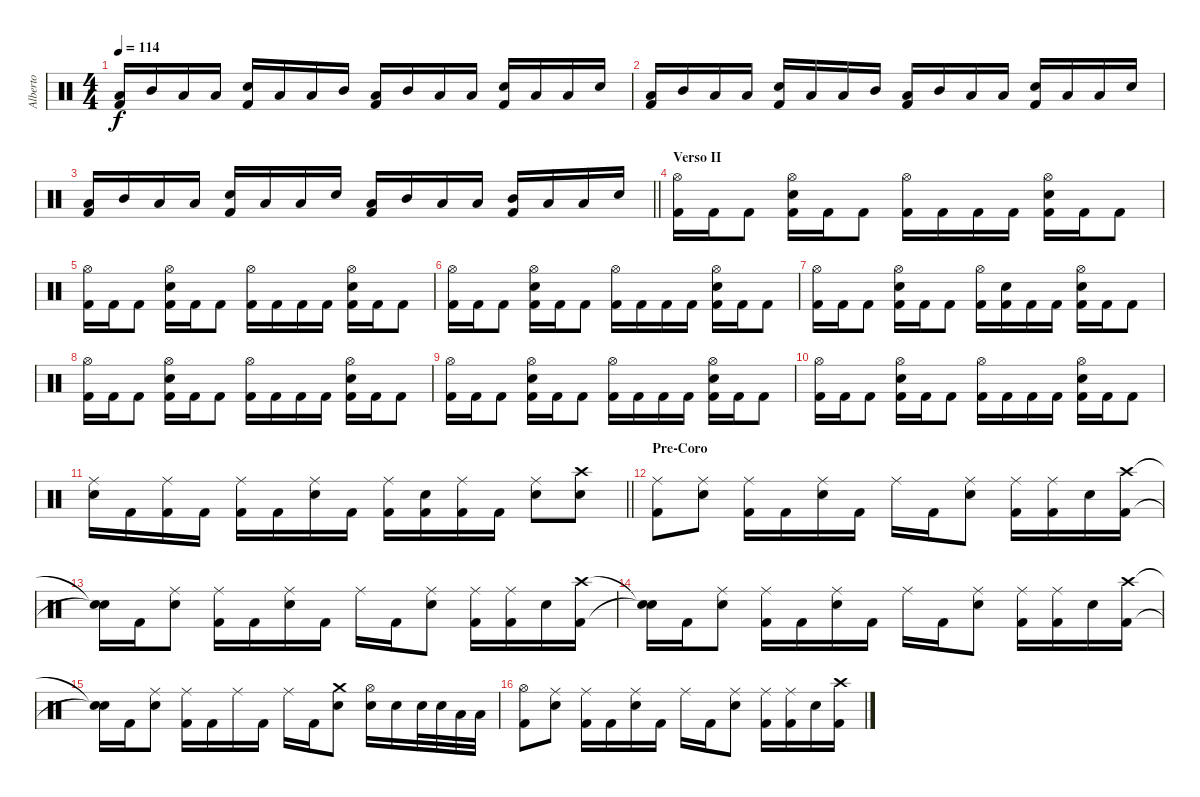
\track ("Alberto" "Alberto") {instrument percussion}
\staff
\articulation defaults
\ts (4 4)
\tempo 114
\clef neutral
\ks c
("Low Floor Tom (hit)" "Kick (hit) 2").16{dy f} "Mid Tom (hit)".16 "Low Floor Tom (hit)".16 "Low Floor Tom (hit)".16 ("Electric Snare (hit)" "Kick (hit) 2").16 "Low Floor Tom (hit)".16 "Low Floor Tom (hit)".16 "Mid Tom (hit)".16 ("Low Floor Tom (hit)" "Kick (hit) 2").16 "Mid Tom (hit)".16 "Low Floor Tom (hit)".16 "Low Floor Tom (hit)".16 ("Electric Snare (hit)" "Kick (hit) 2").16 "Low Floor Tom (hit)".16 "Low Floor Tom (hit)".16 "Electric Snare (hit)".16 |
("Low Floor Tom (hit)" "Kick (hit) 2").16 "Mid Tom (hit)".16 "Low Floor Tom (hit)".16 "Low Floor Tom (hit)".16 ("Electric Snare (hit)" "Kick (hit) 2").16 "Low Floor Tom (hit)".16 "Low Floor Tom (hit)".16 "Mid Tom (hit)".16 ("Low Floor Tom (hit)" "Kick (hit) 2").16 "Mid Tom (hit)".16 "Low Floor Tom (hit)".16 "Low Floor Tom (hit)".16 ("Electric Snare (hit)" "Kick (hit) 2").16 "Low Floor Tom (hit)".16 "Low Floor Tom (hit)".16 "Electric Snare (hit)".16 |
\barLineRight lightlight
("Low Floor Tom (hit)" "Kick (hit) 2").16 "Mid Tom (hit)".16 "Low Floor Tom (hit)".16 "Low Floor Tom (hit)".16 ("Electric Snare (hit)" "Kick (hit) 2").16 "Low Floor Tom (hit)".16 "Low Floor Tom (hit)".16 "Electric Snare (hit)".16 ("Low Floor Tom (hit)" "Kick (hit) 2").16 "Mid Tom (hit)".16 "Low Floor Tom (hit)".16 "Low Floor Tom (hit)".16 ("Mid Tom (hit)" "Kick (hit) 2").16 "Low Floor Tom (hit)".16 "Low Floor Tom (hit)".16 "Electric Snare (hit)".16 |
\section ("" "Verso II")
("Hi-Hat (open)" "Kick (hit) 2").16 "Kick (hit) 2".16 "Kick (hit) 2".8 ("Hi-Hat (open)" "Electric Snare (hit)" "Kick (hit) 2").16 "Kick (hit) 2".16 "Kick (hit) 2".8 ("Hi-Hat (open)" "Kick (hit) 2").16 "Kick (hit) 2".16 "Kick (hit) 2".16 "Kick (hit) 2".16 ("Hi-Hat (open)" "Electric Snare (hit)" "Kick (hit) 2").16 "Kick (hit) 2".16 "Kick (hit) 2".8 |
("Hi-Hat (open)" "Kick (hit) 2").16 "Kick (hit) 2".16 "Kick (hit) 2".8 ("Hi-Hat (open)" "Electric Snare (hit)" "Kick (hit) 2").16 "Kick (hit) 2".16 "Kick (hit) 2".8 ("Hi-Hat (open)" "Kick (hit) 2").16 "Kick (hit) 2".16 "Kick (hit) 2".16 "Kick (hit) 2".16 ("Hi-Hat (open)" "Electric Snare (hit)" "Kick (hit) 2").16 "Kick (hit) 2".16 "Kick (hit) 2".8 |
("Hi-Hat (open)" "Kick (hit) 2").16 "Kick (hit) 2".16 "Kick (hit) 2".8 ("Hi-Hat (open)" "Electric Snare (hit)" "Kick (hit) 2").16 "Kick (hit) 2".16 "Kick (hit) 2".8 ("Hi-Hat (open)" "Kick (hit) 2").16 "Kick (hit) 2".16 "Kick (hit) 2".16 "Kick (hit) 2".16 ("Hi-Hat (open)" "Electric Snare (hit)" "Kick (hit) 2").16 "Kick (hit) 2".16 "Kick (hit) 2".8 |
("Hi-Hat (open)" "Kick (hit) 2").16 "Kick (hit) 2".16 "Kick (hit) 2".8 ("Hi-Hat (open)" "Electric Snare (hit)" "Kick (hit) 2").16 "Kick (hit) 2".16 "Kick (hit) 2".8 ("Hi-Hat (open)" "Kick (hit) 2").16 ("Electric Snare (hit)" "Kick (hit) 2").16 "Kick (hit) 2".16 "Kick (hit) 2".16 ("Hi-Hat (open)" "Electric Snare (hit)" "Kick (hit) 2").16 "Kick (hit) 2".16 "Kick (hit) 2".8 |
("Hi-Hat (open)" "Kick (hit) 2").16 "Kick (hit) 2".16 "Kick (hit) 2".8 ("Hi-Hat (open)" "Electric Snare (hit)" "Kick (hit) 2").16 "Kick (hit) 2".16 "Kick (hit) 2".8 ("Hi-Hat (open)" "Kick (hit) 2").16 "Kick (hit) 2".16 "Kick (hit) 2".16 "Kick (hit) 2".16 ("Hi-Hat (open)" "Electric Snare (hit)" "Kick (hit) 2").16 "Kick (hit) 2".16 "Kick (hit) 2".8 |
("Hi-Hat (open)" "Kick (hit) 2").16 "Kick (hit) 2".16 "Kick (hit) 2".8 ("Hi-Hat (open)" "Electric Snare (hit)" "Kick (hit) 2").16 "Kick (hit) 2".16 "Kick (hit) 2".8 ("Hi-Hat (open)" "Kick (hit) 2").16 "Kick (hit) 2".16 "Kick (hit) 2".16 "Kick (hit) 2".16 ("Hi-Hat (open)" "Electric Snare (hit)" "Kick (hit) 2").16 "Kick (hit) 2".16 "Kick (hit) 2".8 |
("Hi-Hat (open)" "Kick (hit) 2").16 "Kick (hit) 2".16 "Kick (hit) 2".8 ("Hi-Hat (open)" "Electric Snare (hit)" "Kick (hit) 2").16 "Kick (hit) 2".16 "Kick (hit) 2".8 ("Hi-Hat (open)" "Kick (hit) 2").16 "Kick (hit) 2".16 "Kick (hit) 2".16 "Kick (hit) 2".16 ("Hi-Hat (open)" "Electric Snare (hit)" "Kick (hit) 2").16 "Kick (hit) 2".16 "Kick (hit) 2".8 |
\barLineRight lightlight
("Ride (middle)" "Electric Snare (hit)").16 "Kick (hit) 2".16 ("Ride (middle)" "Kick (hit) 2").16 "Kick (hit) 2".16 ("Ride (middle)" "Kick (hit) 2").16 "Kick (hit) 2".16 ("Ride (middle)" "Electric Snare (hit)").16 "Kick (hit) 2".16 ("Ride (middle)" "Kick (hit) 2").16 ("Electric Snare (hit)" "Kick (hit) 2").16 ("Ride (middle)" "Kick (hit) 2").16 "Kick (hit) 2".16 ("Ride (middle)" "Electric Snare (hit)").8 ("Crash high (hit)" "Electric Snare (hit)").8 |
\section ("" "Pre-Coro")
("Ride (middle)" "Kick (hit) 2").8 ("Ride (middle)" "Electric Snare (hit)").8 ("Ride (middle)" "Kick (hit) 2").16 "Kick (hit) 2".16 ("Ride (middle)" "Electric Snare (hit)").16 "Kick (hit) 2".16 "Ride (middle)".16 "Kick (hit) 2".16 ("Ride (middle)" "Electric Snare (hit)").8 ("Ride (middle)" "Kick (hit) 2").16 ("Ride (middle)" "Kick (hit) 2").16 "Electric Snare (hit)".16 ("Crash high (hit)" "Kick (hit) 2").16 |
("Snare (hit)"{t} "Snare (hit)"{t}).16 "Kick (hit) 2".16 ("Ride (middle)" "Electric Snare (hit)").8 ("Ride (middle)" "Kick (hit) 2").16 "Kick (hit) 2".16 ("Ride (middle)" "Electric Snare (hit)").16 "Kick (hit) 2".16 "Ride (middle)".16 "Kick (hit) 2".16 ("Ride (middle)" "Electric Snare (hit)").8 ("Ride (middle)" "Kick (hit) 2").16 ("Ride (middle)" "Kick (hit) 2").16 "Electric Snare (hit)".16 ("Crash high (hit)" "Kick (hit) 2").16 |
("Snare (hit)"{t} "Snare (hit)"{t}).16 "Kick (hit) 2".16 ("Ride (middle)" "Electric Snare (hit)").8 ("Ride (middle)" "Kick (hit) 2").16 "Kick (hit) 2".16 ("Ride (middle)" "Electric Snare (hit)").16 "Kick (hit) 2".16 "Ride (middle)".16 "Kick (hit) 2".16 ("Ride (middle)" "Electric Snare (hit)").8 ("Ride (middle)" "Kick (hit) 2").16 ("Ride (middle)" "Kick (hit) 2").16 "Electric Snare (hit)".16 ("Crash high (hit)" "Kick (hit) 2").16 |
("Snare (hit)"{t} "Snare (hit)"{t}).16 "Kick (hit) 2".16 ("Ride (middle)" "Electric Snare (hit)").8 ("Ride (middle)" "Kick (hit) 2").16 "Kick (hit) 2".16 "Ride (middle)".16 "Kick (hit) 2".16 "Ride (middle)".16 "Kick (hit) 2".16 ("Crash medium (hit)" "Electric Snare (hit)").8 ("Hi-Hat (open)" "Electric Snare (hit)").16 "Electric Snare (hit)".16 "Electric Snare (hit)".32 "Electric Snare (hit)".32 "Low Tom (hit)".32 "Low Tom (hit)".32 |
("Hi-Hat (open)" "Kick (hit) 2").8 ("Ride (middle)" "Electric Snare (hit)").8 ("Ride (middle)" "Kick (hit) 2").16 "Kick (hit) 2".16 ("Ride (middle)" "Electric Snare (hit)").16 "Kick (hit) 2".16 "Ride (middle)".16 "Kick (hit) 2".16 ("Ride (middle)" "Electric Snare (hit)").8 ("Ride (middle)" "Kick (hit) 2").16 ("Ride (middle)" "Kick (hit) 2").16 "Electric Snare (hit)".16 ("Crash high (hit)" "Kick (hit) 2").16
